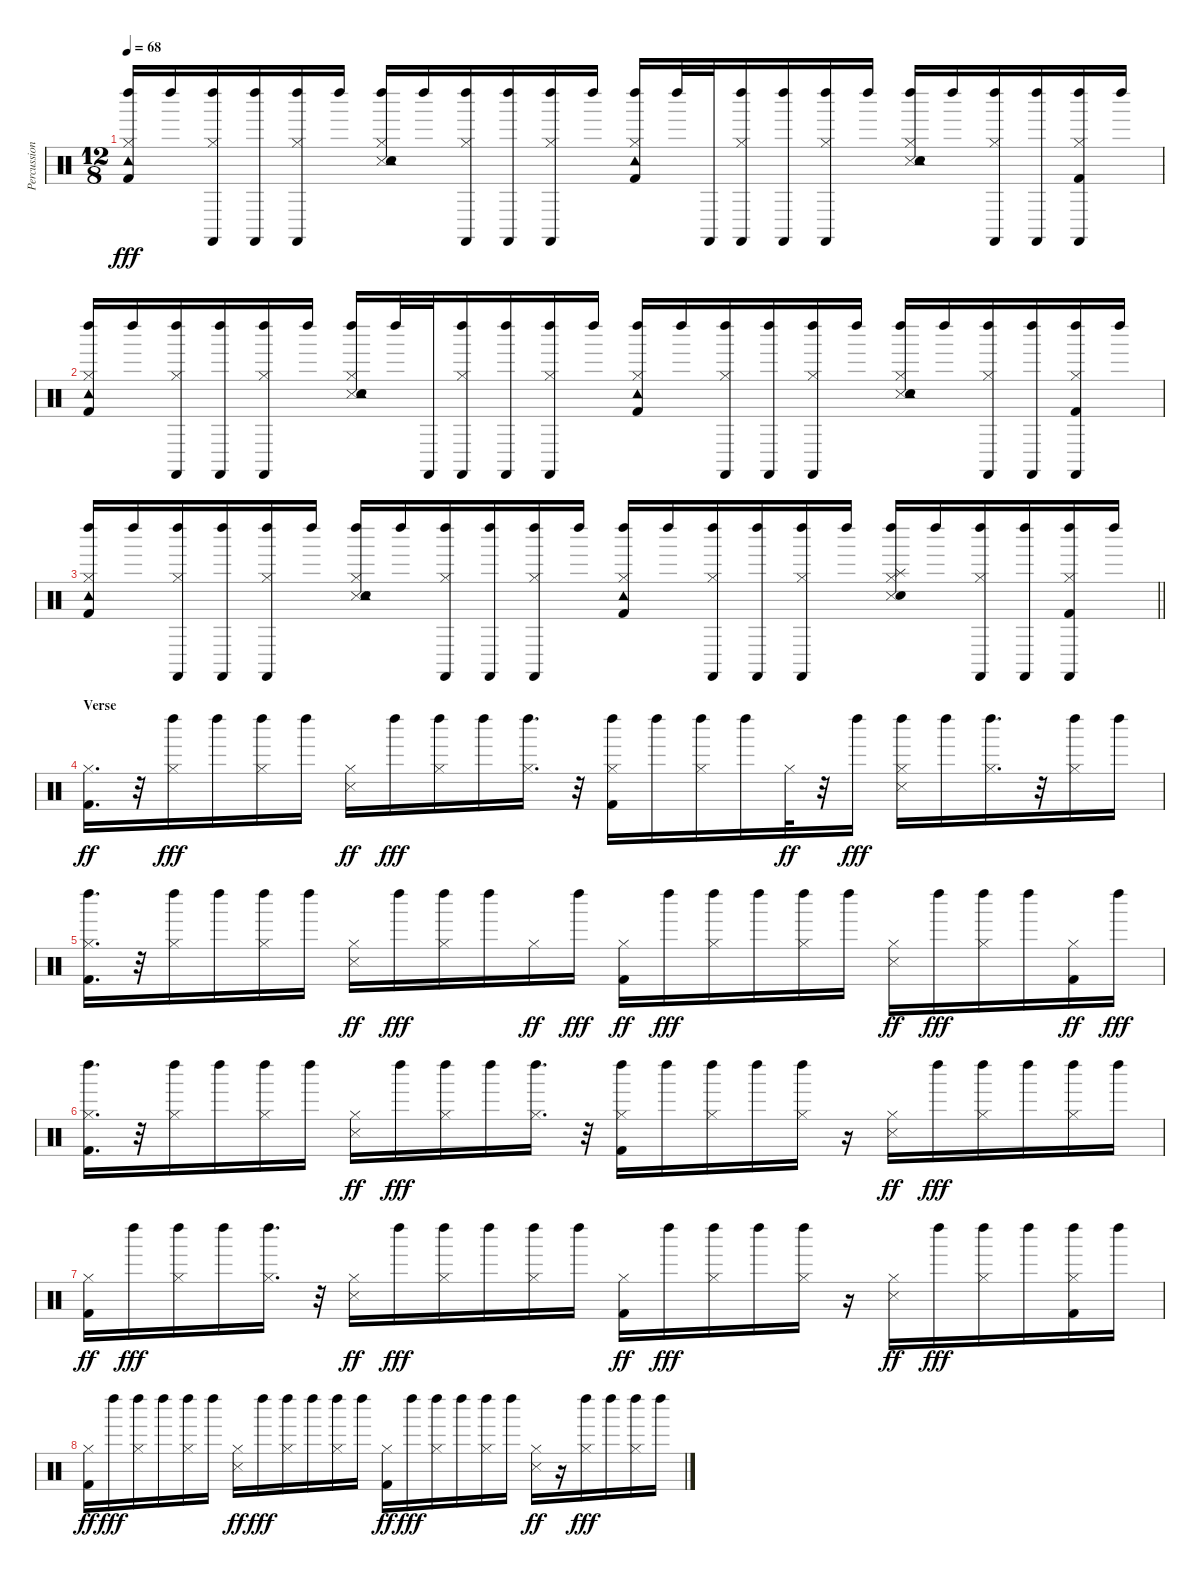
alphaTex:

\track ("Percussion" "Percussion") {instrument percussion}
\staff {score}
\articulation defaults
\ts (12 8)
\tempo 68
\clef neutral
\ks c
("Kick (hit) 2" "Hi-Hat (closed)" "Tambourine (hit)" "Left Maraca (hit)").16{dy fff} "Left Maraca (hit)".16 ("Hi-Hat (closed)" "Left Maraca (hit)" "Castanets (hit)").16 ("Left Maraca (hit)" "Castanets (hit)").16 ("Hi-Hat (closed)" "Left Maraca (hit)" "Castanets (hit)").16 "Left Maraca (hit)".16 ("Snare (side stick) 3" "Hi-Hat (closed)" "Tambourine (hit)" "Snare (hit) 2" "Left Maraca (hit)").16 "Left Maraca (hit)".16 ("Hi-Hat (closed)" "Left Maraca (hit)" "Castanets (hit)").16 ("Left Maraca (hit)" "Castanets (hit)").16 ("Hi-Hat (closed)" "Left Maraca (hit)" "Castanets (hit)").16 "Left Maraca (hit)".16 ("Kick (hit) 2" "Hi-Hat (closed)" "Tambourine (hit)" "Left Maraca (hit)").16 "Left Maraca (hit)".32 "Castanets (hit)".32 ("Hi-Hat (closed)" "Left Maraca (hit)" "Castanets (hit)").16 ("Left Maraca (hit)" "Castanets (hit)").16 ("Hi-Hat (closed)" "Left Maraca (hit)" "Castanets (hit)").16 "Left Maraca (hit)".16 ("Snare (side stick) 3" "Hi-Hat (closed)" "Tambourine (hit)" "Snare (hit) 2" "Left Maraca (hit)").16 "Left Maraca (hit)".16 ("Hi-Hat (closed)" "Left Maraca (hit)" "Castanets (hit)").16 ("Left Maraca (hit)" "Castanets (hit)").16 ("Kick (hit) 2" "Hi-Hat (closed)" "Left Maraca (hit)" "Castanets (hit)").16 "Left Maraca (hit)".16 |
("Kick (hit) 2" "Hi-Hat (closed)" "Tambourine (hit)" "Left Maraca (hit)").16 "Left Maraca (hit)".16 ("Hi-Hat (closed)" "Left Maraca (hit)" "Castanets (hit)").16 ("Left Maraca (hit)" "Castanets (hit)").16 ("Hi-Hat (closed)" "Left Maraca (hit)" "Castanets (hit)").16 "Left Maraca (hit)".16 ("Snare (side stick) 3" "Hi-Hat (closed)" "Tambourine (hit)" "Snare (hit) 2" "Left Maraca (hit)").16 "Left Maraca (hit)".32 "Castanets (hit)".32 ("Hi-Hat (closed)" "Left Maraca (hit)" "Castanets (hit)").16 ("Left Maraca (hit)" "Castanets (hit)").16 ("Hi-Hat (closed)" "Left Maraca (hit)" "Castanets (hit)").16 "Left Maraca (hit)".16 ("Kick (hit) 2" "Hi-Hat (closed)" "Tambourine (hit)" "Left Maraca (hit)").16 "Left Maraca (hit)".16 ("Hi-Hat (closed)" "Left Maraca (hit)" "Castanets (hit)").16 ("Left Maraca (hit)" "Castanets (hit)").16 ("Hi-Hat (closed)" "Left Maraca (hit)" "Castanets (hit)").16 "Left Maraca (hit)".16 ("Snare (side stick) 3" "Hi-Hat (closed)" "Tambourine (hit)" "Snare (hit) 2" "Left Maraca (hit)").16 "Left Maraca (hit)".16 ("Hi-Hat (closed)" "Left Maraca (hit)" "Castanets (hit)").16 ("Left Maraca (hit)" "Castanets (hit)").16 ("Kick (hit) 2" "Hi-Hat (closed)" "Left Maraca (hit)" "Castanets (hit)").16 "Left Maraca (hit)".16 |
\barLineRight lightlight
("Tambourine (hit)" "Kick (hit) 2" "Hi-Hat (closed)" "Left Maraca (hit)").16 "Left Maraca (hit)".16 ("Hi-Hat (closed)" "Left Maraca (hit)" "Castanets (hit)").16 ("Left Maraca (hit)" "Castanets (hit)").16 ("Hi-Hat (closed)" "Left Maraca (hit)" "Castanets (hit)").16 "Left Maraca (hit)".16 ("Snare (side stick) 3" "Hi-Hat (closed)" "Snare (hit) 2" "Tambourine (hit)" "Left Maraca (hit)").16 "Left Maraca (hit)".16 ("Hi-Hat (closed)" "Left Maraca (hit)" "Castanets (hit)").16 ("Left Maraca (hit)" "Castanets (hit)").16 ("Hi-Hat (closed)" "Left Maraca (hit)" "Castanets (hit)").16 "Left Maraca (hit)".16 ("Kick (hit) 2" "Hi-Hat (closed)" "Tambourine (hit)" "Left Maraca (hit)").16 "Left Maraca (hit)".16 ("Hi-Hat (closed)" "Left Maraca (hit)" "Castanets (hit)").16 ("Left Maraca (hit)" "Castanets (hit)").16 ("Hi-Hat (closed)" "Left Maraca (hit)" "Castanets (hit)").16 "Left Maraca (hit)".16 ("Snare (side stick) 3" "Hi-Hat (closed)" "Splash (hit)" "Snare (hit) 2" "Left Maraca (hit)").16 "Left Maraca (hit)".16 ("Hi-Hat (closed)" "Left Maraca (hit)" "Castanets (hit)").16 ("Left Maraca (hit)" "Castanets (hit)").16 ("Kick (hit) 2" "Hi-Hat (closed)" "Left Maraca (hit)" "Castanets (hit)").16 "Left Maraca (hit)".16 |
\section ("" "Verse")
("Kick (hit) 2" "Hi-Hat (closed)").16{d dy ff} r.32 ("Hi-Hat (closed)" "Left Maraca (hit)").16{dy fff} "Left Maraca (hit)".16 ("Hi-Hat (closed)" "Left Maraca (hit)").16 "Left Maraca (hit)".16 ("Snare (side stick) 3" "Hi-Hat (closed)").16{dy ff} "Left Maraca (hit)".16{dy fff} ("Hi-Hat (closed)" "Left Maraca (hit)").16 "Left Maraca (hit)".16 ("Hi-Hat (closed)" "Left Maraca (hit)").16{d} r.32 ("Kick (hit) 2" "Hi-Hat (closed)" "Left Maraca (hit)").16 "Left Maraca (hit)".16 ("Hi-Hat (closed)" "Left Maraca (hit)").16 "Left Maraca (hit)".16 "Hi-Hat (closed)".32{dy ff} r.32 "Left Maraca (hit)".16{dy fff} ("Snare (side stick) 3" "Hi-Hat (closed)" "Left Maraca (hit)").16 "Left Maraca (hit)".16 ("Hi-Hat (closed)" "Left Maraca (hit)").16{d} r.32 ("Hi-Hat (closed)" "Left Maraca (hit)").16 "Left Maraca (hit)".16 |
("Kick (hit) 2" "Hi-Hat (closed)" "Left Maraca (hit)").16{d} r.32 ("Hi-Hat (closed)" "Left Maraca (hit)").16 "Left Maraca (hit)".16 ("Hi-Hat (closed)" "Left Maraca (hit)").16 "Left Maraca (hit)".16 ("Snare (side stick) 3" "Hi-Hat (closed)").16{dy ff} "Left Maraca (hit)".16{dy fff} ("Hi-Hat (closed)" "Left Maraca (hit)").16 "Left Maraca (hit)".16 "Hi-Hat (closed)".16{dy ff} "Left Maraca (hit)".16{dy fff} ("Kick (hit) 2" "Hi-Hat (closed)").16{dy ff} "Left Maraca (hit)".16{dy fff} ("Hi-Hat (closed)" "Left Maraca (hit)").16 "Left Maraca (hit)".16 ("Hi-Hat (closed)" "Left Maraca (hit)").16 "Left Maraca (hit)".16 ("Snare (side stick) 3" "Hi-Hat (closed)").16{dy ff} "Left Maraca (hit)".16{dy fff} ("Hi-Hat (closed)" "Left Maraca (hit)").16 "Left Maraca (hit)".16 ("Kick (hit) 2" "Hi-Hat (closed)").16{dy ff} "Left Maraca (hit)".16{dy fff} |
("Kick (hit) 2" "Hi-Hat (closed)" "Left Maraca (hit)").16{d} r.32 ("Hi-Hat (closed)" "Left Maraca (hit)").16 "Left Maraca (hit)".16 ("Hi-Hat (closed)" "Left Maraca (hit)").16 "Left Maraca (hit)".16 ("Snare (side stick) 3" "Hi-Hat (closed)").16{dy ff} "Left Maraca (hit)".16{dy fff} ("Hi-Hat (closed)" "Left Maraca (hit)").16 "Left Maraca (hit)".16 ("Hi-Hat (closed)" "Left Maraca (hit)").16{d} r.32 ("Kick (hit) 2" "Hi-Hat (closed)" "Left Maraca (hit)").16 "Left Maraca (hit)".16 ("Hi-Hat (closed)" "Left Maraca (hit)").16 "Left Maraca (hit)".16 ("Hi-Hat (closed)" "Left Maraca (hit)").16 r.16 ("Snare (side stick) 3" "Hi-Hat (closed)").16{dy ff} "Left Maraca (hit)".16{dy fff} ("Hi-Hat (closed)" "Left Maraca (hit)").16 "Left Maraca (hit)".16 ("Hi-Hat (closed)" "Left Maraca (hit)").16 "Left Maraca (hit)".16 |
("Kick (hit) 2" "Hi-Hat (closed)").16{dy ff} "Left Maraca (hit)".16{dy fff} ("Hi-Hat (closed)" "Left Maraca (hit)").16 "Left Maraca (hit)".16 ("Hi-Hat (closed)" "Left Maraca (hit)").16{d} r.32 ("Snare (side stick) 3" "Hi-Hat (closed)").16{dy ff} "Left Maraca (hit)".16{dy fff} ("Hi-Hat (closed)" "Left Maraca (hit)").16 "Left Maraca (hit)".16 ("Hi-Hat (closed)" "Left Maraca (hit)").16 "Left Maraca (hit)".16 ("Kick (hit) 2" "Hi-Hat (closed)").16{dy ff} "Left Maraca (hit)".16{dy fff} ("Hi-Hat (closed)" "Left Maraca (hit)").16 "Left Maraca (hit)".16 ("Hi-Hat (closed)" "Left Maraca (hit)").16 r.16 ("Snare (side stick) 3" "Hi-Hat (closed)").16{dy ff} "Left Maraca (hit)".16{dy fff} ("Hi-Hat (closed)" "Left Maraca (hit)").16 "Left Maraca (hit)".16 ("Kick (hit) 2" "Hi-Hat (closed)" "Left Maraca (hit)").16 "Left Maraca (hit)".16 |
("Kick (hit) 2" "Hi-Hat (closed)").16{dy ff} "Left Maraca (hit)".16{dy fff} ("Hi-Hat (closed)" "Left Maraca (hit)").16 "Left Maraca (hit)".16 ("Hi-Hat (closed)" "Left Maraca (hit)").16 "Left Maraca (hit)".16 ("Snare (side stick) 3" "Hi-Hat (closed)").16{dy ff} "Left Maraca (hit)".16{dy fff} ("Hi-Hat (closed)" "Left Maraca (hit)").16 "Left Maraca (hit)".16 ("Hi-Hat (closed)" "Left Maraca (hit)").16 "Left Maraca (hit)".16 ("Kick (hit) 2" "Hi-Hat (closed)").16{dy ff} "Left Maraca (hit)".16{dy fff} ("Hi-Hat (closed)" "Left Maraca (hit)").16 "Left Maraca (hit)".16 ("Hi-Hat (closed)" "Left Maraca (hit)").16 "Left Maraca (hit)".16 ("Snare (side stick) 3" "Hi-Hat (closed)").16{dy ff} r.16 ("Hi-Hat (closed)" "Left Maraca (hit)").16{dy fff} "Left Maraca (hit)".16 ("Hi-Hat (closed)" "Left Maraca (hit)").16 "Left Maraca (hit)".16
